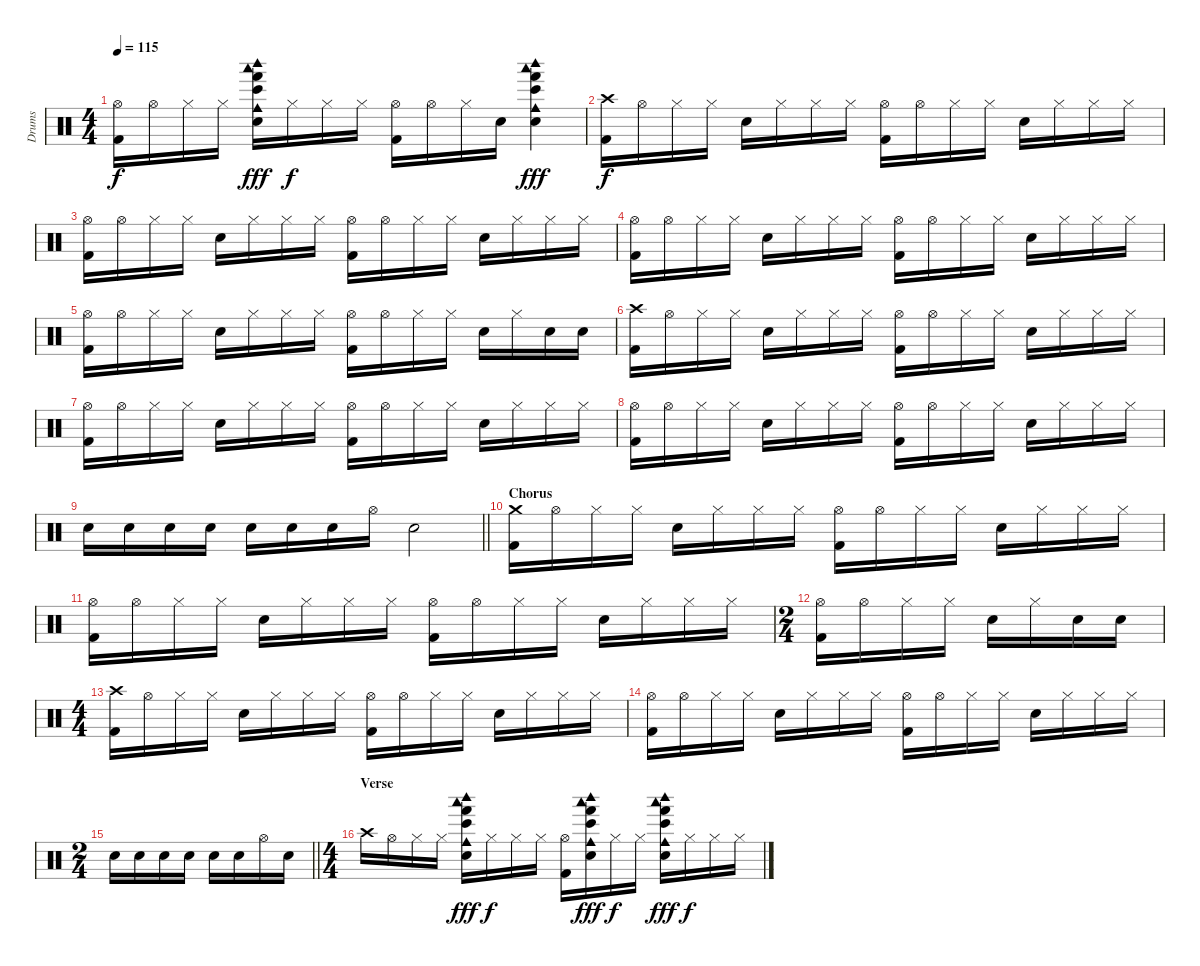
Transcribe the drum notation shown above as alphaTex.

\track ("Drums" "Drums") {instrument percussion}
\staff {score}
\articulation defaults
\ts (4 4)
\tempo 115
\clef neutral
\ks c
("Hi-Hat (open)" "Kick (hit) 2").16{dy f} "Hi-Hat (open)".16 "Hi-Hat (closed)".16 "Hi-Hat (closed)".16 ("Woodblock low (hit)" "Woodblock high (hit)" "Cowbell medium (hit)" "Electric Snare (hit)" "Hand (hit)" "Bongo High (hit)").16{dy fff} "Hi-Hat (closed)".16{dy f} "Hi-Hat (closed)".16 "Hi-Hat (closed)".16 ("Hi-Hat (open)" "Kick (hit) 2").16 "Hi-Hat (open)".16 "Hi-Hat (closed)".16 "Electric Snare (hit)".16 ("Woodblock low (hit)" "Woodblock high (hit)" "Cowbell medium (hit)" "Electric Snare (hit)" "Hand (hit)" "Bongo High (hit)").4{dy fff} |
("Crash high (hit)" "Kick (hit) 2").16{dy f} "Hi-Hat (open)".16 "Hi-Hat (closed)".16 "Hi-Hat (closed)".16 "Electric Snare (hit)".16 "Hi-Hat (closed)".16 "Hi-Hat (closed)".16 "Hi-Hat (closed)".16 ("Hi-Hat (open)" "Kick (hit) 2").16 "Hi-Hat (open)".16 "Hi-Hat (closed)".16 "Hi-Hat (closed)".16 "Electric Snare (hit)".16 "Hi-Hat (closed)".16 "Hi-Hat (closed)".16 "Hi-Hat (closed)".16 |
("Hi-Hat (open)" "Kick (hit) 2").16 "Hi-Hat (open)".16 "Hi-Hat (closed)".16 "Hi-Hat (closed)".16 "Electric Snare (hit)".16 "Hi-Hat (closed)".16 "Hi-Hat (closed)".16 "Hi-Hat (closed)".16 ("Hi-Hat (open)" "Kick (hit) 2").16 "Hi-Hat (open)".16 "Hi-Hat (closed)".16 "Hi-Hat (closed)".16 "Electric Snare (hit)".16 "Hi-Hat (closed)".16 "Hi-Hat (closed)".16 "Hi-Hat (closed)".16 |
("Hi-Hat (open)" "Kick (hit) 2").16 "Hi-Hat (open)".16 "Hi-Hat (closed)".16 "Hi-Hat (closed)".16 "Electric Snare (hit)".16 "Hi-Hat (closed)".16 "Hi-Hat (closed)".16 "Hi-Hat (closed)".16 ("Hi-Hat (open)" "Kick (hit) 2").16 "Hi-Hat (open)".16 "Hi-Hat (closed)".16 "Hi-Hat (closed)".16 "Electric Snare (hit)".16 "Hi-Hat (closed)".16 "Hi-Hat (closed)".16 "Hi-Hat (closed)".16 |
("Hi-Hat (open)" "Kick (hit) 2").16 "Hi-Hat (open)".16 "Hi-Hat (closed)".16 "Hi-Hat (closed)".16 "Electric Snare (hit)".16 "Hi-Hat (closed)".16 "Hi-Hat (closed)".16 "Hi-Hat (closed)".16 ("Hi-Hat (open)" "Kick (hit) 2").16 "Hi-Hat (open)".16 "Hi-Hat (closed)".16 "Hi-Hat (closed)".16 "Electric Snare (hit)".16 "Hi-Hat (closed)".16 "Electric Snare (hit)".16 "Electric Snare (hit)".16 |
("Crash high (hit)" "Kick (hit) 2").16 "Hi-Hat (open)".16 "Hi-Hat (closed)".16 "Hi-Hat (closed)".16 "Electric Snare (hit)".16 "Hi-Hat (closed)".16 "Hi-Hat (closed)".16 "Hi-Hat (closed)".16 ("Hi-Hat (open)" "Kick (hit) 2").16 "Hi-Hat (open)".16 "Hi-Hat (closed)".16 "Hi-Hat (closed)".16 "Electric Snare (hit)".16 "Hi-Hat (closed)".16 "Hi-Hat (closed)".16 "Hi-Hat (closed)".16 |
("Hi-Hat (open)" "Kick (hit) 2").16 "Hi-Hat (open)".16 "Hi-Hat (closed)".16 "Hi-Hat (closed)".16 "Electric Snare (hit)".16 "Hi-Hat (closed)".16 "Hi-Hat (closed)".16 "Hi-Hat (closed)".16 ("Hi-Hat (open)" "Kick (hit) 2").16 "Hi-Hat (open)".16 "Hi-Hat (closed)".16 "Hi-Hat (closed)".16 "Electric Snare (hit)".16 "Hi-Hat (closed)".16 "Hi-Hat (closed)".16 "Hi-Hat (closed)".16 |
("Hi-Hat (open)" "Kick (hit) 2").16 "Hi-Hat (open)".16 "Hi-Hat (closed)".16 "Hi-Hat (closed)".16 "Electric Snare (hit)".16 "Hi-Hat (closed)".16 "Hi-Hat (closed)".16 "Hi-Hat (closed)".16 ("Hi-Hat (open)" "Kick (hit) 2").16 "Hi-Hat (open)".16 "Hi-Hat (closed)".16 "Hi-Hat (closed)".16 "Electric Snare (hit)".16 "Hi-Hat (closed)".16 "Hi-Hat (closed)".16 "Hi-Hat (closed)".16 |
\barLineRight lightlight "Electric Snare (hit)".16 "Electric Snare (hit)".16 "Electric Snare (hit)".16 "Electric Snare (hit)".16 "Electric Snare (hit)".16 "Electric Snare (hit)".16 "Electric Snare (hit)".16 "Hi-Hat (open)".16 "Electric Snare (hit)".2
|
\section ("" "Chorus")
("Crash medium (hit)" "Kick (hit) 2").16 "Hi-Hat (open)".16 "Hi-Hat (closed)".16 "Hi-Hat (closed)".16 "Electric Snare (hit)".16 "Hi-Hat (closed)".16 "Hi-Hat (closed)".16 "Hi-Hat (closed)".16 ("Hi-Hat (open)" "Kick (hit) 2").16 "Hi-Hat (open)".16 "Hi-Hat (closed)".16 "Hi-Hat (closed)".16 "Electric Snare (hit)".16 "Hi-Hat (closed)".16 "Hi-Hat (closed)".16 "Hi-Hat (closed)".16 |
("Hi-Hat (open)" "Kick (hit) 2").16 "Hi-Hat (open)".16 "Hi-Hat (closed)".16 "Hi-Hat (closed)".16 "Electric Snare (hit)".16 "Hi-Hat (closed)".16 "Hi-Hat (closed)".16 "Hi-Hat (closed)".16 ("Hi-Hat (open)" "Kick (hit) 2").16 "Hi-Hat (open)".16 "Hi-Hat (closed)".16 "Hi-Hat (closed)".16 "Electric Snare (hit)".16 "Hi-Hat (closed)".16 "Hi-Hat (closed)".16 "Hi-Hat (closed)".16 |
\ts (2 4)
("Hi-Hat (open)" "Kick (hit) 2").16 "Hi-Hat (open)".16 "Hi-Hat (closed)".16 "Hi-Hat (closed)".16 "Electric Snare (hit)".16 "Hi-Hat (closed)".16 "Electric Snare (hit)".16 "Electric Snare (hit)".16 |
\ts (4 4)
("Crash high (hit)" "Kick (hit) 2").16 "Hi-Hat (open)".16 "Hi-Hat (closed)".16 "Hi-Hat (closed)".16 "Electric Snare (hit)".16 "Hi-Hat (closed)".16 "Hi-Hat (closed)".16 "Hi-Hat (closed)".16 ("Hi-Hat (open)" "Kick (hit) 2").16 "Hi-Hat (open)".16 "Hi-Hat (closed)".16 "Hi-Hat (closed)".16 "Electric Snare (hit)".16 "Hi-Hat (closed)".16 "Hi-Hat (closed)".16 "Hi-Hat (closed)".16 |
("Hi-Hat (open)" "Kick (hit) 2").16 "Hi-Hat (open)".16 "Hi-Hat (closed)".16 "Hi-Hat (closed)".16 "Electric Snare (hit)".16 "Hi-Hat (closed)".16 "Hi-Hat (closed)".16 "Hi-Hat (closed)".16 ("Hi-Hat (open)" "Kick (hit) 2").16 "Hi-Hat (open)".16 "Hi-Hat (closed)".16 "Hi-Hat (closed)".16 "Electric Snare (hit)".16 "Hi-Hat (closed)".16 "Hi-Hat (closed)".16 "Hi-Hat (closed)".16 |
\ts (2 4)
\barLineRight lightlight "Electric Snare (hit)".16 "Electric Snare (hit)".16 "Electric Snare (hit)".16 "Electric Snare (hit)".16 "Electric Snare (hit)".16 "Electric Snare (hit)".16 "Hi-Hat (open)".16 "Electric Snare (hit)".16
|
\ts (4 4)
\section ("" "Verse")
"Crash high (hit)".16 "Hi-Hat (open)".16 "Hi-Hat (closed)".16 "Hi-Hat (closed)".16 ("Woodblock low (hit)" "Woodblock high (hit)" "Cowbell medium (hit)" "Electric Snare (hit)" "Hand (hit)" "Bongo High (hit)").16{dy fff} "Hi-Hat (closed)".16{dy f} "Hi-Hat (closed)".16 "Hi-Hat (closed)".16 ("Hi-Hat (open)" "Kick (hit) 2").16 ("Woodblock low (hit)" "Woodblock high (hit)" "Cowbell medium (hit)" "Electric Snare (hit)" "Hand (hit)" "Bongo High (hit)").16{dy fff} "Hi-Hat (closed)".16{dy f} "Hi-Hat (closed)".16 ("Woodblock low (hit)" "Woodblock high (hit)" "Cowbell medium (hit)" "Electric Snare (hit)" "Hand (hit)" "Bongo High (hit)").16{dy fff} "Hi-Hat (closed)".16{dy f} "Hi-Hat (closed)".16 "Hi-Hat (closed)".16
